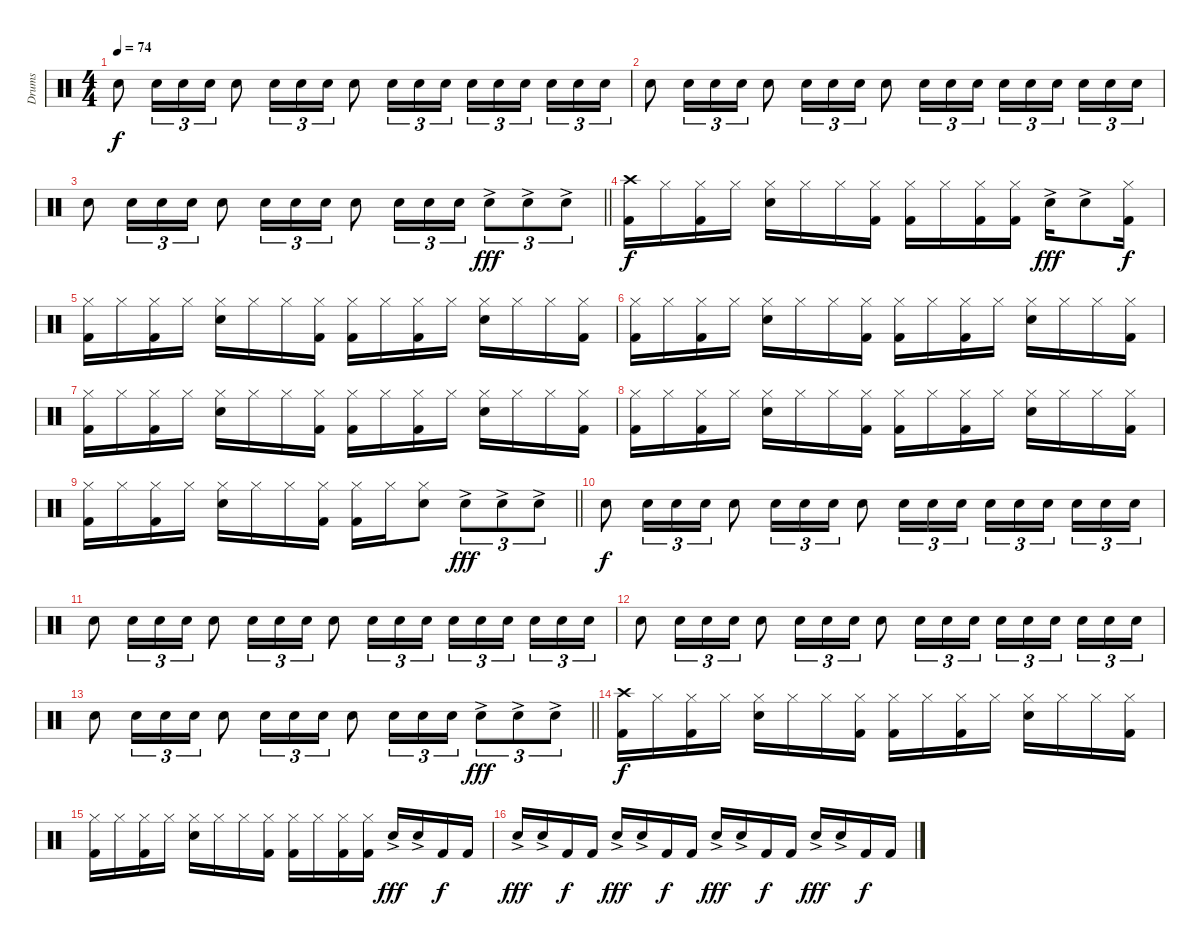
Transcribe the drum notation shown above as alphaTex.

\track ("Drums" "Drums") {instrument percussion}
\staff {score}
\articulation defaults
\ts (4 4)
\tempo 74
\clef neutral
\ks aminor "Snare (hit) 2".8{dy f} "Snare (hit) 2".16{tu (3 2)} "Snare (hit) 2".16{tu (3 2)} "Snare (hit) 2".16{tu (3 2)} "Snare (hit) 2".8 "Snare (hit) 2".16{tu (3 2)} "Snare (hit) 2".16{tu (3 2)} "Snare (hit) 2".16{tu (3 2)} "Snare (hit) 2".8 "Snare (hit) 2".16{tu (3 2)} "Snare (hit) 2".16{tu (3 2)} "Snare (hit) 2".16{tu (3 2)} "Snare (hit) 2".16{tu (3 2)} "Snare (hit) 2".16{tu (3 2)} "Snare (hit) 2".16{tu (3 2)} "Snare (hit) 2".16{tu (3 2)} "Snare (hit) 2".16{tu (3 2)} "Snare (hit) 2".16{tu (3 2)}
|
"Snare (hit) 2".8 "Snare (hit) 2".16{tu (3 2)} "Snare (hit) 2".16{tu (3 2)} "Snare (hit) 2".16{tu (3 2)} "Snare (hit) 2".8 "Snare (hit) 2".16{tu (3 2)} "Snare (hit) 2".16{tu (3 2)} "Snare (hit) 2".16{tu (3 2)} "Snare (hit) 2".8 "Snare (hit) 2".16{tu (3 2)} "Snare (hit) 2".16{tu (3 2)} "Snare (hit) 2".16{tu (3 2)} "Snare (hit) 2".16{tu (3 2)} "Snare (hit) 2".16{tu (3 2)} "Snare (hit) 2".16{tu (3 2)} "Snare (hit) 2".16{tu (3 2)} "Snare (hit) 2".16{tu (3 2)} "Snare (hit) 2".16{tu (3 2)} |
\barLineRight lightlight "Snare (hit) 2".8 "Snare (hit) 2".16{tu (3 2)} "Snare (hit) 2".16{tu (3 2)} "Snare (hit) 2".16{tu (3 2)} "Snare (hit) 2".8 "Snare (hit) 2".16{tu (3 2)} "Snare (hit) 2".16{tu (3 2)} "Snare (hit) 2".16{tu (3 2)} "Snare (hit) 2".8 "Snare (hit) 2".16{tu (3 2)} "Snare (hit) 2".16{tu (3 2)} "Snare (hit) 2".16{tu (3 2)} "Snare (hit) 2"{ac}.8{tu (3 2) dy fff} "Snare (hit) 2"{ac}.8{tu (3 2)} "Snare (hit) 2"{ac}.8{tu (3 2)}
|
("Crash high (hit)" "Kick (hit) 2").16{dy f} "Hi-Hat (closed)".16 ("Hi-Hat (closed)" "Kick (hit) 2").16 "Hi-Hat (closed)".16 ("Hi-Hat (closed)" "Snare (hit) 2").16 "Hi-Hat (closed)".16 "Hi-Hat (closed)".16 ("Hi-Hat (closed)" "Kick (hit) 2").16 ("Hi-Hat (closed)" "Kick (hit) 2").16 "Hi-Hat (closed)".16 ("Hi-Hat (closed)" "Kick (hit) 2").16 ("Hi-Hat (closed)" "Kick (hit) 2").16 "Snare (hit) 2"{ac}.16{dy fff} "Snare (hit) 2"{ac}.8 ("Hi-Hat (closed)" "Kick (hit) 2").16{dy f} |
("Hi-Hat (closed)" "Kick (hit) 2").16 "Hi-Hat (closed)".16 ("Hi-Hat (closed)" "Kick (hit) 2").16 "Hi-Hat (closed)".16 ("Hi-Hat (closed)" "Snare (hit) 2").16 "Hi-Hat (closed)".16 "Hi-Hat (closed)".16 ("Hi-Hat (closed)" "Kick (hit) 2").16 ("Hi-Hat (closed)" "Kick (hit) 2").16 "Hi-Hat (closed)".16 ("Hi-Hat (closed)" "Kick (hit) 2").16 "Hi-Hat (closed)".16 ("Hi-Hat (closed)" "Snare (hit) 2").16 "Hi-Hat (closed)".16 "Hi-Hat (closed)".16 ("Hi-Hat (closed)" "Kick (hit) 2").16 |
("Hi-Hat (closed)" "Kick (hit) 2").16 "Hi-Hat (closed)".16 ("Hi-Hat (closed)" "Kick (hit) 2").16 "Hi-Hat (closed)".16 ("Hi-Hat (closed)" "Snare (hit) 2").16 "Hi-Hat (closed)".16 "Hi-Hat (closed)".16 ("Hi-Hat (closed)" "Kick (hit) 2").16 ("Hi-Hat (closed)" "Kick (hit) 2").16 "Hi-Hat (closed)".16 ("Hi-Hat (closed)" "Kick (hit) 2").16 "Hi-Hat (closed)".16 ("Hi-Hat (closed)" "Snare (hit) 2").16 "Hi-Hat (closed)".16 "Hi-Hat (closed)".16 ("Hi-Hat (closed)" "Kick (hit) 2").16 |
("Hi-Hat (closed)" "Kick (hit) 2").16 "Hi-Hat (closed)".16 ("Hi-Hat (closed)" "Kick (hit) 2").16 "Hi-Hat (closed)".16 ("Hi-Hat (closed)" "Snare (hit) 2").16 "Hi-Hat (closed)".16 "Hi-Hat (closed)".16 ("Hi-Hat (closed)" "Kick (hit) 2").16 ("Hi-Hat (closed)" "Kick (hit) 2").16 "Hi-Hat (closed)".16 ("Hi-Hat (closed)" "Kick (hit) 2").16 "Hi-Hat (closed)".16 ("Hi-Hat (closed)" "Snare (hit) 2").16 "Hi-Hat (closed)".16 "Hi-Hat (closed)".16 ("Hi-Hat (closed)" "Kick (hit) 2").16 |
("Hi-Hat (closed)" "Kick (hit) 2").16 "Hi-Hat (closed)".16 ("Hi-Hat (closed)" "Kick (hit) 2").16 "Hi-Hat (closed)".16 ("Hi-Hat (closed)" "Snare (hit) 2").16 "Hi-Hat (closed)".16 "Hi-Hat (closed)".16 ("Hi-Hat (closed)" "Kick (hit) 2").16 ("Hi-Hat (closed)" "Kick (hit) 2").16 "Hi-Hat (closed)".16 ("Hi-Hat (closed)" "Kick (hit) 2").16 "Hi-Hat (closed)".16 ("Hi-Hat (closed)" "Snare (hit) 2").16 "Hi-Hat (closed)".16 "Hi-Hat (closed)".16 ("Hi-Hat (closed)" "Kick (hit) 2").16 |
\barLineRight lightlight
("Hi-Hat (closed)" "Kick (hit) 2").16 "Hi-Hat (closed)".16 ("Hi-Hat (closed)" "Kick (hit) 2").16 "Hi-Hat (closed)".16 ("Hi-Hat (closed)" "Snare (hit) 2").16 "Hi-Hat (closed)".16 "Hi-Hat (closed)".16 ("Hi-Hat (closed)" "Kick (hit) 2").16 ("Hi-Hat (closed)" "Kick (hit) 2").16 "Hi-Hat (closed)".16 ("Hi-Hat (closed)" "Snare (hit) 2").8 "Snare (hit) 2"{ac}.8{tu (3 2) dy fff} "Snare (hit) 2"{ac}.8{tu (3 2)} "Snare (hit) 2"{ac}.8{tu (3 2)} |
"Snare (hit) 2".8{dy f} "Snare (hit) 2".16{tu (3 2)} "Snare (hit) 2".16{tu (3 2)} "Snare (hit) 2".16{tu (3 2)} "Snare (hit) 2".8 "Snare (hit) 2".16{tu (3 2)} "Snare (hit) 2".16{tu (3 2)} "Snare (hit) 2".16{tu (3 2)} "Snare (hit) 2".8 "Snare (hit) 2".16{tu (3 2)} "Snare (hit) 2".16{tu (3 2)} "Snare (hit) 2".16{tu (3 2)} "Snare (hit) 2".16{tu (3 2)} "Snare (hit) 2".16{tu (3 2)} "Snare (hit) 2".16{tu (3 2)} "Snare (hit) 2".16{tu (3 2)} "Snare (hit) 2".16{tu (3 2)} "Snare (hit) 2".16{tu (3 2)} |
"Snare (hit) 2".8 "Snare (hit) 2".16{tu (3 2)} "Snare (hit) 2".16{tu (3 2)} "Snare (hit) 2".16{tu (3 2)} "Snare (hit) 2".8 "Snare (hit) 2".16{tu (3 2)} "Snare (hit) 2".16{tu (3 2)} "Snare (hit) 2".16{tu (3 2)} "Snare (hit) 2".8 "Snare (hit) 2".16{tu (3 2)} "Snare (hit) 2".16{tu (3 2)} "Snare (hit) 2".16{tu (3 2)} "Snare (hit) 2".16{tu (3 2)} "Snare (hit) 2".16{tu (3 2)} "Snare (hit) 2".16{tu (3 2)} "Snare (hit) 2".16{tu (3 2)} "Snare (hit) 2".16{tu (3 2)} "Snare (hit) 2".16{tu (3 2)} |
"Snare (hit) 2".8 "Snare (hit) 2".16{tu (3 2)} "Snare (hit) 2".16{tu (3 2)} "Snare (hit) 2".16{tu (3 2)} "Snare (hit) 2".8 "Snare (hit) 2".16{tu (3 2)} "Snare (hit) 2".16{tu (3 2)} "Snare (hit) 2".16{tu (3 2)} "Snare (hit) 2".8 "Snare (hit) 2".16{tu (3 2)} "Snare (hit) 2".16{tu (3 2)} "Snare (hit) 2".16{tu (3 2)} "Snare (hit) 2".16{tu (3 2)} "Snare (hit) 2".16{tu (3 2)} "Snare (hit) 2".16{tu (3 2)} "Snare (hit) 2".16{tu (3 2)} "Snare (hit) 2".16{tu (3 2)} "Snare (hit) 2".16{tu (3 2)} |
\barLineRight lightlight "Snare (hit) 2".8 "Snare (hit) 2".16{tu (3 2)} "Snare (hit) 2".16{tu (3 2)} "Snare (hit) 2".16{tu (3 2)} "Snare (hit) 2".8 "Snare (hit) 2".16{tu (3 2)} "Snare (hit) 2".16{tu (3 2)} "Snare (hit) 2".16{tu (3 2)} "Snare (hit) 2".8 "Snare (hit) 2".16{tu (3 2)} "Snare (hit) 2".16{tu (3 2)} "Snare (hit) 2".16{tu (3 2)} "Snare (hit) 2"{ac}.8{tu (3 2) dy fff} "Snare (hit) 2"{ac}.8{tu (3 2)} "Snare (hit) 2"{ac}.8{tu (3 2)}
|
("Crash high (hit)" "Kick (hit) 2").16{dy f} "Hi-Hat (closed)".16 ("Hi-Hat (closed)" "Kick (hit) 2").16 "Hi-Hat (closed)".16 ("Hi-Hat (closed)" "Snare (hit) 2").16 "Hi-Hat (closed)".16 "Hi-Hat (closed)".16 ("Hi-Hat (closed)" "Kick (hit) 2").16 ("Hi-Hat (closed)" "Kick (hit) 2").16 "Hi-Hat (closed)".16 ("Hi-Hat (closed)" "Kick (hit) 2").16 "Hi-Hat (closed)".16 ("Hi-Hat (closed)" "Snare (hit) 2").16 "Hi-Hat (closed)".16 "Hi-Hat (closed)".16 ("Hi-Hat (closed)" "Kick (hit) 2").16 |
("Hi-Hat (closed)" "Kick (hit) 2").16 "Hi-Hat (closed)".16 ("Hi-Hat (closed)" "Kick (hit) 2").16 "Hi-Hat (closed)".16 ("Hi-Hat (closed)" "Snare (hit) 2").16 "Hi-Hat (closed)".16 "Hi-Hat (closed)".16 ("Hi-Hat (closed)" "Kick (hit) 2").16 ("Hi-Hat (closed)" "Kick (hit) 2").16 "Hi-Hat (closed)".16 ("Hi-Hat (closed)" "Kick (hit) 2").16 ("Hi-Hat (closed)" "Kick (hit) 2").16 "Snare (hit) 2"{ac}.16{dy fff} "Snare (hit) 2"{ac}.16 "Kick (hit) 2".16{dy f} "Kick (hit) 2".16 |
"Snare (hit) 2"{ac}.16{dy fff} "Snare (hit) 2"{ac}.16 "Kick (hit) 2".16{dy f} "Kick (hit) 2".16 "Snare (hit) 2"{ac}.16{dy fff} "Snare (hit) 2"{ac}.16 "Kick (hit) 2".16{dy f} "Kick (hit) 2".16 "Snare (hit) 2"{ac}.16{dy fff} "Snare (hit) 2"{ac}.16 "Kick (hit) 2".16{dy f} "Kick (hit) 2".16 "Snare (hit) 2"{ac}.16{dy fff} "Snare (hit) 2"{ac}.16 "Kick (hit) 2".16{dy f} "Kick (hit) 2".16
